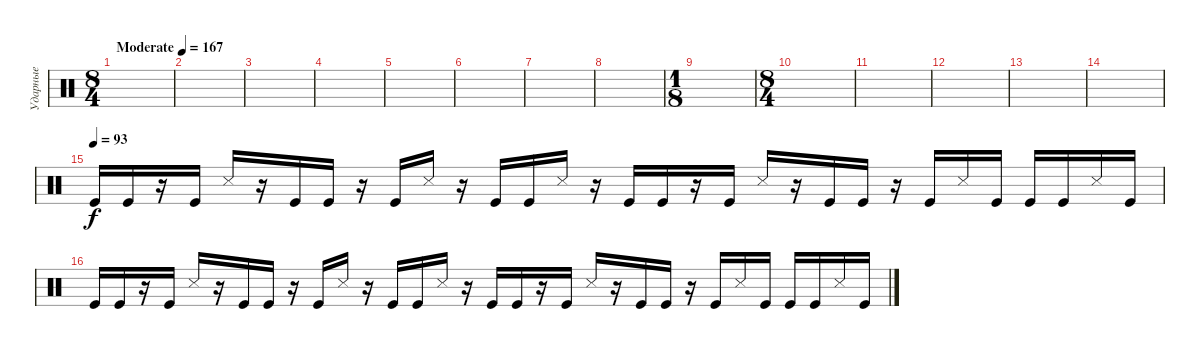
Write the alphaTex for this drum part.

\track ("Ударные" "Ударные") {instrument percussion}
\staff {score}
\articulation defaults
\ts (8 4)
\tempo (167 "Moderate")
\tempo 180
\tempo (167 "Moderate")
\clef neutral
\ks c
|
|
|
|
|
|
|
|
\ts (1 8)
|
\ts (8 4)
|
|
|
|
|
\tempo (93)
"Kick (hit)".16 "Kick (hit)".16 r.16 "Kick (hit)".16 "Metronome (hit)".16 r.16 "Kick (hit)".16 "Kick (hit)".16 r.16 "Kick (hit)".16 "Metronome (hit)".16 r.16 "Kick (hit)".16 "Kick (hit)".16 "Metronome (hit)".16 r.16 "Kick (hit)".16 "Kick (hit)".16 r.16 "Kick (hit)".16 "Metronome (hit)".16 r.16 "Kick (hit)".16 "Kick (hit)".16 r.16 "Kick (hit)".16 "Metronome (hit)".16 "Kick (hit)".16 "Kick (hit)".16 "Kick (hit)".16 "Metronome (hit)".16 "Kick (hit)".16 |
"Kick (hit)".16 "Kick (hit)".16 r.16 "Kick (hit)".16 "Metronome (hit)".16 r.16 "Kick (hit)".16 "Kick (hit)".16 r.16 "Kick (hit)".16 "Metronome (hit)".16 r.16 "Kick (hit)".16 "Kick (hit)".16 "Metronome (hit)".16 r.16 "Kick (hit)".16 "Kick (hit)".16 r.16 "Kick (hit)".16 "Metronome (hit)".16 r.16 "Kick (hit)".16 "Kick (hit)".16 r.16 "Kick (hit)".16 "Metronome (hit)".16 "Kick (hit)".16 "Kick (hit)".16 "Kick (hit)".16 "Metronome (hit)".16 "Kick (hit)".16
